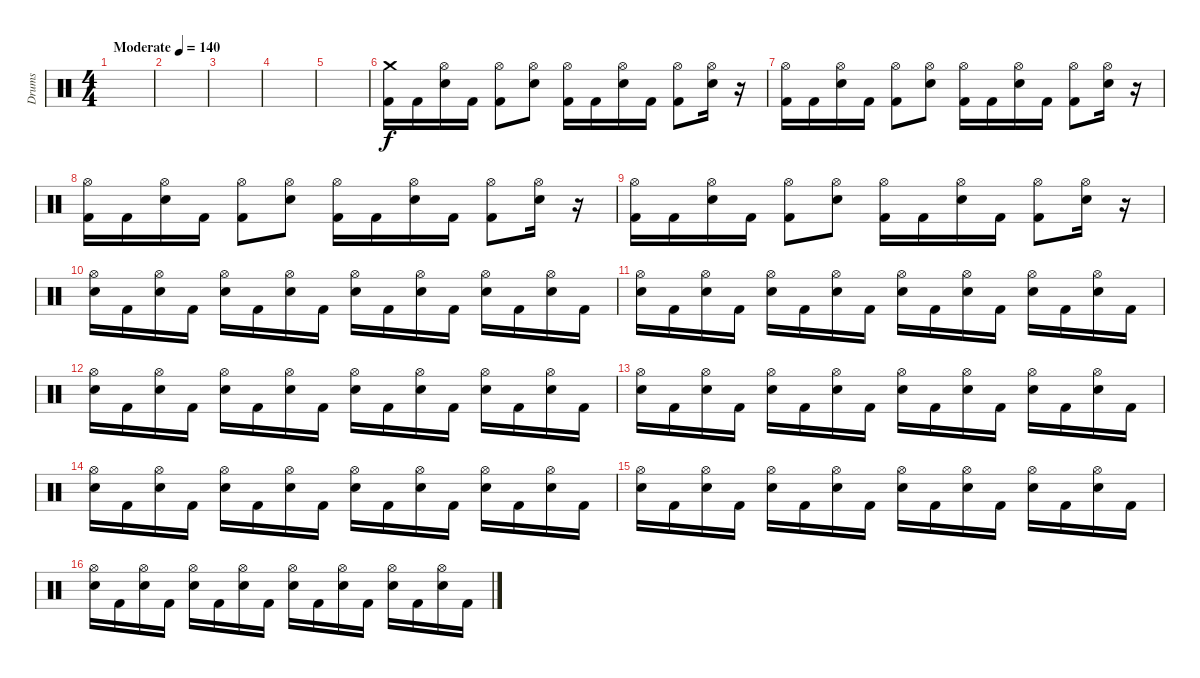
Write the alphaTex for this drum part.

\track ("Drums" "Drums") {instrument percussion}
\staff {score}
\articulation defaults
\ts (4 4)
\tempo (140 "Moderate")
\clef neutral
\ks c
|
|
|
|
|
("Kick (hit) 2" "Crash medium (hit)").16 "Kick (hit) 2".16 ("Electric Snare (hit)" "Hi-Hat (open)").16 "Kick (hit) 2".16 ("Kick (hit) 2" "Hi-Hat (open)").8 ("Electric Snare (hit)" "Hi-Hat (open)").8 ("Kick (hit) 2" "Hi-Hat (open)").16 "Kick (hit) 2".16 ("Electric Snare (hit)" "Hi-Hat (open)").16 "Kick (hit) 2".16 ("Kick (hit) 2" "Hi-Hat (open)").8 ("Electric Snare (hit)" "Hi-Hat (open)").16 r.16 |
("Kick (hit) 2" "Hi-Hat (open)").16 "Kick (hit) 2".16 ("Electric Snare (hit)" "Hi-Hat (open)").16 "Kick (hit) 2".16 ("Kick (hit) 2" "Hi-Hat (open)").8 ("Electric Snare (hit)" "Hi-Hat (open)").8 ("Kick (hit) 2" "Hi-Hat (open)").16 "Kick (hit) 2".16 ("Electric Snare (hit)" "Hi-Hat (open)").16 "Kick (hit) 2".16 ("Kick (hit) 2" "Hi-Hat (open)").8 ("Electric Snare (hit)" "Hi-Hat (open)").16 r.16 |
("Kick (hit) 2" "Hi-Hat (open)").16 "Kick (hit) 2".16 ("Electric Snare (hit)" "Hi-Hat (open)").16 "Kick (hit) 2".16 ("Kick (hit) 2" "Hi-Hat (open)").8 ("Electric Snare (hit)" "Hi-Hat (open)").8 ("Kick (hit) 2" "Hi-Hat (open)").16 "Kick (hit) 2".16 ("Electric Snare (hit)" "Hi-Hat (open)").16 "Kick (hit) 2".16 ("Kick (hit) 2" "Hi-Hat (open)").8 ("Electric Snare (hit)" "Hi-Hat (open)").16 r.16 |
("Kick (hit) 2" "Hi-Hat (open)").16 "Kick (hit) 2".16 ("Electric Snare (hit)" "Hi-Hat (open)").16 "Kick (hit) 2".16 ("Kick (hit) 2" "Hi-Hat (open)").8 ("Electric Snare (hit)" "Hi-Hat (open)").8 ("Kick (hit) 2" "Hi-Hat (open)").16 "Kick (hit) 2".16 ("Electric Snare (hit)" "Hi-Hat (open)").16 "Kick (hit) 2".16 ("Kick (hit) 2" "Hi-Hat (open)").8 ("Electric Snare (hit)" "Hi-Hat (open)").16 r.16 |
("Electric Snare (hit)" "Hi-Hat (open)").16 "Kick (hit) 2".16 ("Electric Snare (hit)" "Hi-Hat (open)").16 "Kick (hit) 2".16 ("Electric Snare (hit)" "Hi-Hat (open)").16 "Kick (hit) 2".16 ("Electric Snare (hit)" "Hi-Hat (open)").16 "Kick (hit) 2".16 ("Electric Snare (hit)" "Hi-Hat (open)").16 "Kick (hit) 2".16 ("Electric Snare (hit)" "Hi-Hat (open)").16 "Kick (hit) 2".16 ("Electric Snare (hit)" "Hi-Hat (open)").16 "Kick (hit) 2".16 ("Electric Snare (hit)" "Hi-Hat (open)").16 "Kick (hit) 2".16 |
("Electric Snare (hit)" "Hi-Hat (open)").16 "Kick (hit) 2".16 ("Electric Snare (hit)" "Hi-Hat (open)").16 "Kick (hit) 2".16 ("Electric Snare (hit)" "Hi-Hat (open)").16 "Kick (hit) 2".16 ("Electric Snare (hit)" "Hi-Hat (open)").16 "Kick (hit) 2".16 ("Electric Snare (hit)" "Hi-Hat (open)").16 "Kick (hit) 2".16 ("Electric Snare (hit)" "Hi-Hat (open)").16 "Kick (hit) 2".16 ("Electric Snare (hit)" "Hi-Hat (open)").16 "Kick (hit) 2".16 ("Electric Snare (hit)" "Hi-Hat (open)").16 "Kick (hit) 2".16 |
("Electric Snare (hit)" "Hi-Hat (open)").16 "Kick (hit) 2".16 ("Electric Snare (hit)" "Hi-Hat (open)").16 "Kick (hit) 2".16 ("Electric Snare (hit)" "Hi-Hat (open)").16 "Kick (hit) 2".16 ("Electric Snare (hit)" "Hi-Hat (open)").16 "Kick (hit) 2".16 ("Electric Snare (hit)" "Hi-Hat (open)").16 "Kick (hit) 2".16 ("Electric Snare (hit)" "Hi-Hat (open)").16 "Kick (hit) 2".16 ("Electric Snare (hit)" "Hi-Hat (open)").16 "Kick (hit) 2".16 ("Electric Snare (hit)" "Hi-Hat (open)").16 "Kick (hit) 2".16 |
("Electric Snare (hit)" "Hi-Hat (open)").16 "Kick (hit) 2".16 ("Electric Snare (hit)" "Hi-Hat (open)").16 "Kick (hit) 2".16 ("Electric Snare (hit)" "Hi-Hat (open)").16 "Kick (hit) 2".16 ("Electric Snare (hit)" "Hi-Hat (open)").16 "Kick (hit) 2".16 ("Electric Snare (hit)" "Hi-Hat (open)").16 "Kick (hit) 2".16 ("Electric Snare (hit)" "Hi-Hat (open)").16 "Kick (hit) 2".16 ("Electric Snare (hit)" "Hi-Hat (open)").16 "Kick (hit) 2".16 ("Electric Snare (hit)" "Hi-Hat (open)").16 "Kick (hit) 2".16 |
("Electric Snare (hit)" "Hi-Hat (open)").16 "Kick (hit) 2".16 ("Electric Snare (hit)" "Hi-Hat (open)").16 "Kick (hit) 2".16 ("Electric Snare (hit)" "Hi-Hat (open)").16 "Kick (hit) 2".16 ("Electric Snare (hit)" "Hi-Hat (open)").16 "Kick (hit) 2".16 ("Electric Snare (hit)" "Hi-Hat (open)").16 "Kick (hit) 2".16 ("Electric Snare (hit)" "Hi-Hat (open)").16 "Kick (hit) 2".16 ("Electric Snare (hit)" "Hi-Hat (open)").16 "Kick (hit) 2".16 ("Electric Snare (hit)" "Hi-Hat (open)").16 "Kick (hit) 2".16 |
("Electric Snare (hit)" "Hi-Hat (open)").16 "Kick (hit) 2".16 ("Electric Snare (hit)" "Hi-Hat (open)").16 "Kick (hit) 2".16 ("Electric Snare (hit)" "Hi-Hat (open)").16 "Kick (hit) 2".16 ("Electric Snare (hit)" "Hi-Hat (open)").16 "Kick (hit) 2".16 ("Electric Snare (hit)" "Hi-Hat (open)").16 "Kick (hit) 2".16 ("Electric Snare (hit)" "Hi-Hat (open)").16 "Kick (hit) 2".16 ("Electric Snare (hit)" "Hi-Hat (open)").16 "Kick (hit) 2".16 ("Electric Snare (hit)" "Hi-Hat (open)").16 "Kick (hit) 2".16 |
("Electric Snare (hit)" "Hi-Hat (open)").16 "Kick (hit) 2".16 ("Electric Snare (hit)" "Hi-Hat (open)").16 "Kick (hit) 2".16 ("Electric Snare (hit)" "Hi-Hat (open)").16 "Kick (hit) 2".16 ("Electric Snare (hit)" "Hi-Hat (open)").16 "Kick (hit) 2".16 ("Electric Snare (hit)" "Hi-Hat (open)").16 "Kick (hit) 2".16 ("Electric Snare (hit)" "Hi-Hat (open)").16 "Kick (hit) 2".16 ("Electric Snare (hit)" "Hi-Hat (open)").16 "Kick (hit) 2".16 ("Electric Snare (hit)" "Hi-Hat (open)").16 "Kick (hit) 2".16
